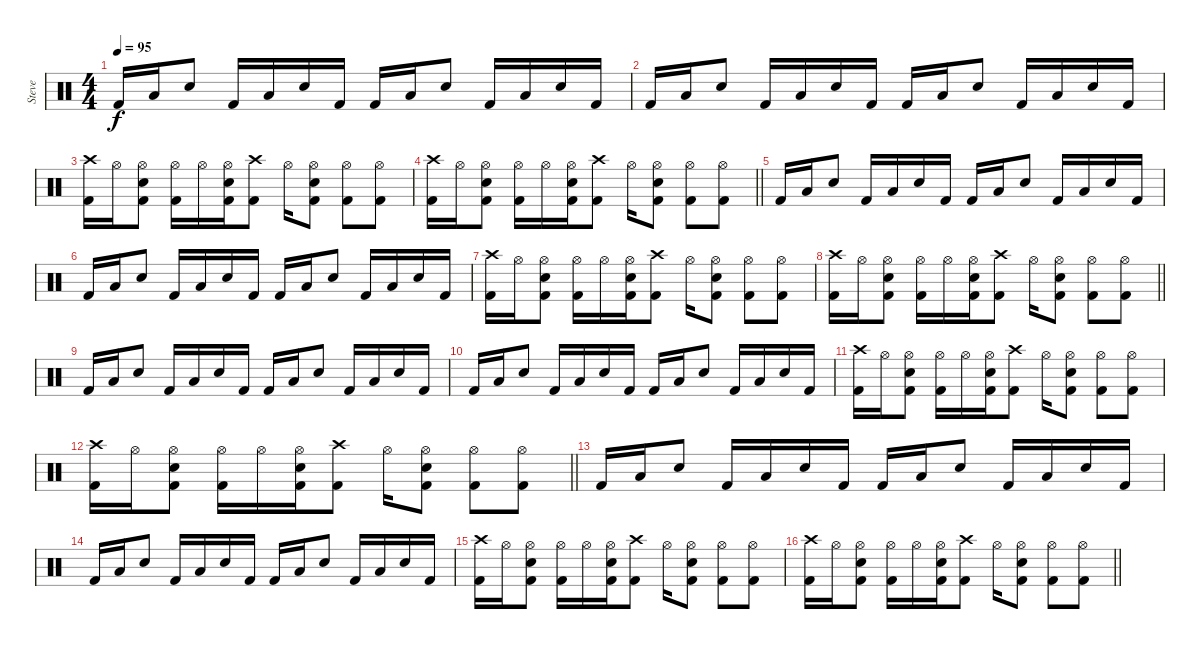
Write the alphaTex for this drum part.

\track ("Steve" "Steve") {instrument percussion}
\staff {score}
\articulation defaults
\ts (4 4)
\tempo 95
\clef neutral
\ks c "Kick (hit) 2".16{dy f} "Low Floor Tom (hit)".16 "Snare (hit) 2".8 "Kick (hit) 2".16 "Low Floor Tom (hit)".16 "Snare (hit) 2".16 "Kick (hit) 2".16 "Kick (hit) 2".16 "Low Floor Tom (hit)".16 "Snare (hit) 2".8 "Kick (hit) 2".16 "Low Floor Tom (hit)".16 "Snare (hit) 2".16 "Kick (hit) 2".16
|
"Kick (hit) 2".16 "Low Floor Tom (hit)".16 "Snare (hit) 2".8 "Kick (hit) 2".16 "Low Floor Tom (hit)".16 "Snare (hit) 2".16 "Kick (hit) 2".16 "Kick (hit) 2".16 "Low Floor Tom (hit)".16 "Snare (hit) 2".8 "Kick (hit) 2".16 "Low Floor Tom (hit)".16 "Snare (hit) 2".16 "Kick (hit) 2".16 |
("Kick (hit) 2" "Crash high (hit)").16 "Hi-Hat (open)".16 ("Kick (hit) 2" "Snare (hit) 2" "Hi-Hat (open)").8 ("Kick (hit) 2" "Hi-Hat (open)").16 "Hi-Hat (open)".16 ("Kick (hit) 2" "Snare (hit) 2" "Hi-Hat (open)").16 ("Kick (hit) 2" "Crash high (hit)").8 "Hi-Hat (open)".16 ("Kick (hit) 2" "Snare (hit) 2" "Hi-Hat (open)").8 ("Kick (hit) 2" "Hi-Hat (open)").8 ("Kick (hit) 2" "Hi-Hat (open)").8 |
\barLineRight lightlight
("Kick (hit) 2" "Crash high (hit)").16 "Hi-Hat (open)".16 ("Kick (hit) 2" "Snare (hit) 2" "Hi-Hat (open)").8 ("Kick (hit) 2" "Hi-Hat (open)").16 "Hi-Hat (open)".16 ("Kick (hit) 2" "Snare (hit) 2" "Hi-Hat (open)").16 ("Kick (hit) 2" "Crash high (hit)").8 "Hi-Hat (open)".16 ("Kick (hit) 2" "Snare (hit) 2" "Hi-Hat (open)").8 ("Kick (hit) 2" "Hi-Hat (open)").8 ("Kick (hit) 2" "Hi-Hat (open)").8 |
"Kick (hit) 2".16 "Low Floor Tom (hit)".16 "Snare (hit) 2".8 "Kick (hit) 2".16 "Low Floor Tom (hit)".16 "Snare (hit) 2".16 "Kick (hit) 2".16 "Kick (hit) 2".16 "Low Floor Tom (hit)".16 "Snare (hit) 2".8 "Kick (hit) 2".16 "Low Floor Tom (hit)".16 "Snare (hit) 2".16 "Kick (hit) 2".16 |
"Kick (hit) 2".16 "Low Floor Tom (hit)".16 "Snare (hit) 2".8 "Kick (hit) 2".16 "Low Floor Tom (hit)".16 "Snare (hit) 2".16 "Kick (hit) 2".16 "Kick (hit) 2".16 "Low Floor Tom (hit)".16 "Snare (hit) 2".8 "Kick (hit) 2".16 "Low Floor Tom (hit)".16 "Snare (hit) 2".16 "Kick (hit) 2".16 |
("Kick (hit) 2" "Crash high (hit)").16 "Hi-Hat (open)".16 ("Kick (hit) 2" "Snare (hit) 2" "Hi-Hat (open)").8 ("Kick (hit) 2" "Hi-Hat (open)").16 "Hi-Hat (open)".16 ("Kick (hit) 2" "Snare (hit) 2" "Hi-Hat (open)").16 ("Kick (hit) 2" "Crash high (hit)").8 "Hi-Hat (open)".16 ("Kick (hit) 2" "Snare (hit) 2" "Hi-Hat (open)").8 ("Kick (hit) 2" "Hi-Hat (open)").8 ("Kick (hit) 2" "Hi-Hat (open)").8 |
\barLineRight lightlight
("Kick (hit) 2" "Crash high (hit)").16 "Hi-Hat (open)".16 ("Kick (hit) 2" "Snare (hit) 2" "Hi-Hat (open)").8 ("Kick (hit) 2" "Hi-Hat (open)").16 "Hi-Hat (open)".16 ("Kick (hit) 2" "Snare (hit) 2" "Hi-Hat (open)").16 ("Kick (hit) 2" "Crash high (hit)").8 "Hi-Hat (open)".16 ("Kick (hit) 2" "Snare (hit) 2" "Hi-Hat (open)").8 ("Kick (hit) 2" "Hi-Hat (open)").8 ("Kick (hit) 2" "Hi-Hat (open)").8 |
"Kick (hit) 2".16 "Low Floor Tom (hit)".16 "Snare (hit) 2".8 "Kick (hit) 2".16 "Low Floor Tom (hit)".16 "Snare (hit) 2".16 "Kick (hit) 2".16 "Kick (hit) 2".16 "Low Floor Tom (hit)".16 "Snare (hit) 2".8 "Kick (hit) 2".16 "Low Floor Tom (hit)".16 "Snare (hit) 2".16 "Kick (hit) 2".16 |
"Kick (hit) 2".16 "Low Floor Tom (hit)".16 "Snare (hit) 2".8 "Kick (hit) 2".16 "Low Floor Tom (hit)".16 "Snare (hit) 2".16 "Kick (hit) 2".16 "Kick (hit) 2".16 "Low Floor Tom (hit)".16 "Snare (hit) 2".8 "Kick (hit) 2".16 "Low Floor Tom (hit)".16 "Snare (hit) 2".16 "Kick (hit) 2".16 |
("Kick (hit) 2" "Crash high (hit)").16 "Hi-Hat (open)".16 ("Kick (hit) 2" "Snare (hit) 2" "Hi-Hat (open)").8 ("Kick (hit) 2" "Hi-Hat (open)").16 "Hi-Hat (open)".16 ("Kick (hit) 2" "Snare (hit) 2" "Hi-Hat (open)").16 ("Kick (hit) 2" "Crash high (hit)").8 "Hi-Hat (open)".16 ("Kick (hit) 2" "Snare (hit) 2" "Hi-Hat (open)").8 ("Kick (hit) 2" "Hi-Hat (open)").8 ("Kick (hit) 2" "Hi-Hat (open)").8 |
\barLineRight lightlight
("Kick (hit) 2" "Crash high (hit)").16 "Hi-Hat (open)".16 ("Kick (hit) 2" "Snare (hit) 2" "Hi-Hat (open)").8 ("Kick (hit) 2" "Hi-Hat (open)").16 "Hi-Hat (open)".16 ("Kick (hit) 2" "Snare (hit) 2" "Hi-Hat (open)").16 ("Kick (hit) 2" "Crash high (hit)").8 "Hi-Hat (open)".16 ("Kick (hit) 2" "Snare (hit) 2" "Hi-Hat (open)").8 ("Kick (hit) 2" "Hi-Hat (open)").8 ("Kick (hit) 2" "Hi-Hat (open)").8 |
"Kick (hit) 2".16 "Low Floor Tom (hit)".16 "Snare (hit) 2".8 "Kick (hit) 2".16 "Low Floor Tom (hit)".16 "Snare (hit) 2".16 "Kick (hit) 2".16 "Kick (hit) 2".16 "Low Floor Tom (hit)".16 "Snare (hit) 2".8 "Kick (hit) 2".16 "Low Floor Tom (hit)".16 "Snare (hit) 2".16 "Kick (hit) 2".16 |
"Kick (hit) 2".16 "Low Floor Tom (hit)".16 "Snare (hit) 2".8 "Kick (hit) 2".16 "Low Floor Tom (hit)".16 "Snare (hit) 2".16 "Kick (hit) 2".16 "Kick (hit) 2".16 "Low Floor Tom (hit)".16 "Snare (hit) 2".8 "Kick (hit) 2".16 "Low Floor Tom (hit)".16 "Snare (hit) 2".16 "Kick (hit) 2".16 |
("Kick (hit) 2" "Crash high (hit)").16 "Hi-Hat (open)".16 ("Kick (hit) 2" "Snare (hit) 2" "Hi-Hat (open)").8 ("Kick (hit) 2" "Hi-Hat (open)").16 "Hi-Hat (open)".16 ("Kick (hit) 2" "Snare (hit) 2" "Hi-Hat (open)").16 ("Kick (hit) 2" "Crash high (hit)").8 "Hi-Hat (open)".16 ("Kick (hit) 2" "Snare (hit) 2" "Hi-Hat (open)").8 ("Kick (hit) 2" "Hi-Hat (open)").8 ("Kick (hit) 2" "Hi-Hat (open)").8 |
\barLineRight lightlight
("Kick (hit) 2" "Crash high (hit)").16 "Hi-Hat (open)".16 ("Kick (hit) 2" "Snare (hit) 2" "Hi-Hat (open)").8 ("Kick (hit) 2" "Hi-Hat (open)").16 "Hi-Hat (open)".16 ("Kick (hit) 2" "Snare (hit) 2" "Hi-Hat (open)").16 ("Kick (hit) 2" "Crash high (hit)").8 "Hi-Hat (open)".16 ("Kick (hit) 2" "Snare (hit) 2" "Hi-Hat (open)").8 ("Kick (hit) 2" "Hi-Hat (open)").8 ("Kick (hit) 2" "Hi-Hat (open)").8
